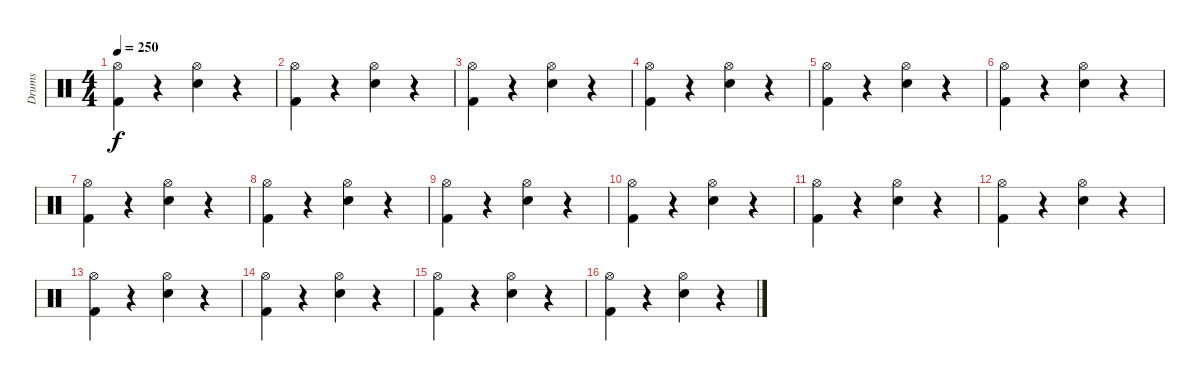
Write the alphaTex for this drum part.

\track ("Drums" "Drums") {instrument percussion}
\staff {score}
\articulation defaults
\ts (4 4)
\tempo 250
\clef neutral
\ks c
("Hi-Hat (open)" "Kick (hit) 2").4{dy f} r.4 ("Hi-Hat (open)" "Snare (hit) 2").4 r.4 |
("Hi-Hat (open)" "Kick (hit) 2").4 r.4 ("Hi-Hat (open)" "Snare (hit) 2").4 r.4 |
("Hi-Hat (open)" "Kick (hit) 2").4 r.4 ("Hi-Hat (open)" "Snare (hit) 2").4 r.4 |
("Hi-Hat (open)" "Kick (hit) 2").4 r.4 ("Hi-Hat (open)" "Snare (hit) 2").4 r.4 |
("Hi-Hat (open)" "Kick (hit) 2").4 r.4 ("Hi-Hat (open)" "Snare (hit) 2").4 r.4 |
("Hi-Hat (open)" "Kick (hit) 2").4 r.4 ("Hi-Hat (open)" "Snare (hit) 2").4 r.4 |
("Hi-Hat (open)" "Kick (hit) 2").4 r.4 ("Hi-Hat (open)" "Snare (hit) 2").4 r.4 |
("Hi-Hat (open)" "Kick (hit) 2").4 r.4 ("Hi-Hat (open)" "Snare (hit) 2").4 r.4 |
("Hi-Hat (open)" "Kick (hit) 2").4 r.4 ("Hi-Hat (open)" "Snare (hit) 2").4 r.4 |
("Hi-Hat (open)" "Kick (hit) 2").4 r.4 ("Hi-Hat (open)" "Snare (hit) 2").4 r.4 |
("Hi-Hat (open)" "Kick (hit) 2").4 r.4 ("Hi-Hat (open)" "Snare (hit) 2").4 r.4 |
("Hi-Hat (open)" "Kick (hit) 2").4 r.4 ("Hi-Hat (open)" "Snare (hit) 2").4 r.4 |
("Hi-Hat (open)" "Kick (hit) 2").4 r.4 ("Hi-Hat (open)" "Snare (hit) 2").4 r.4 |
("Hi-Hat (open)" "Kick (hit) 2").4 r.4 ("Hi-Hat (open)" "Snare (hit) 2").4 r.4 |
("Hi-Hat (open)" "Kick (hit) 2").4 r.4 ("Hi-Hat (open)" "Snare (hit) 2").4 r.4 |
("Hi-Hat (open)" "Kick (hit) 2").4 r.4 ("Hi-Hat (open)" "Snare (hit) 2").4 r.4
